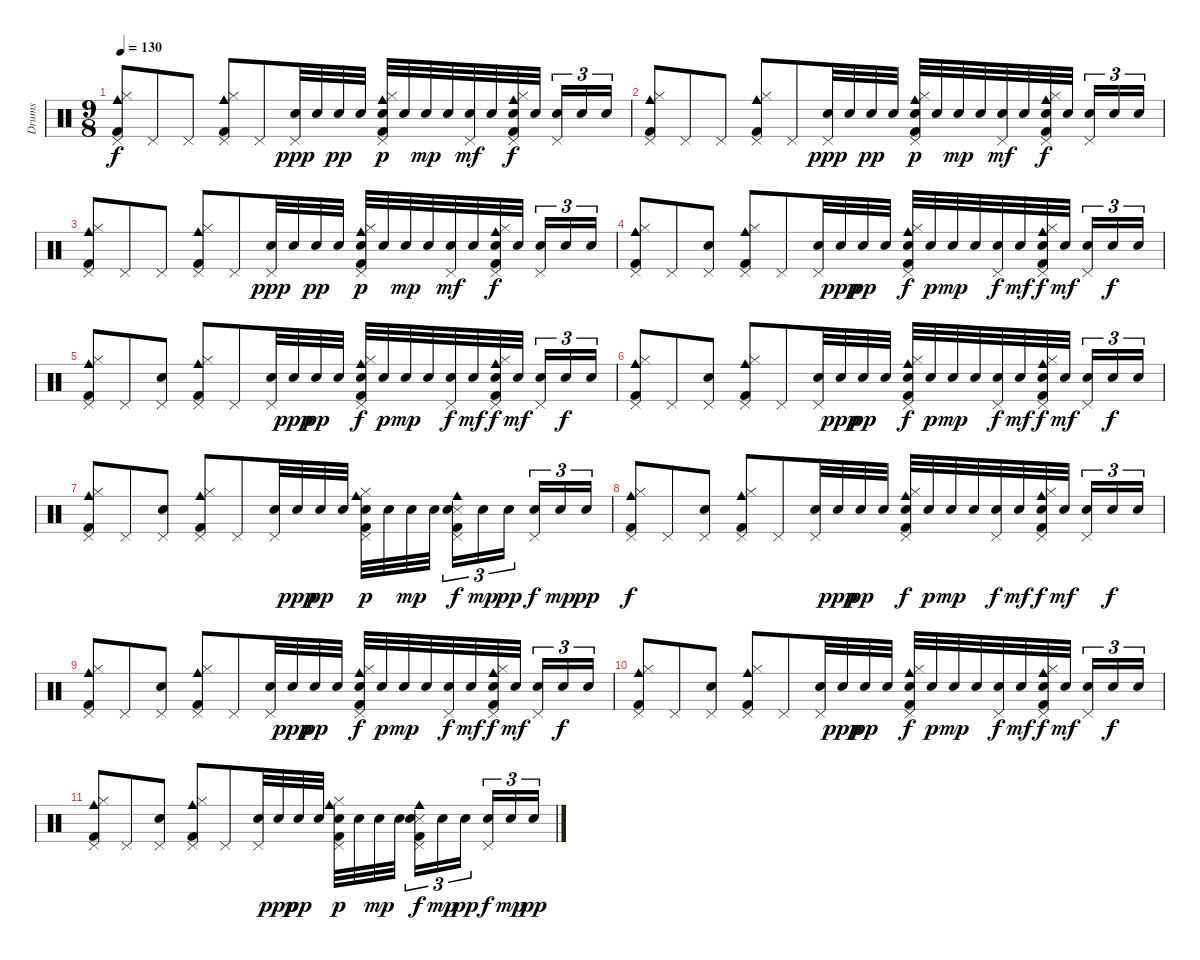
\track ("Drums" "Drums") {instrument percussion}
\staff {score}
\articulation defaults
\ts (9 8)
\tempo 130
\clef neutral
\ks c
("Cowbell medium (hit)" "Pedal Hi-Hat (hit)" "Hi-Hat (closed)" "Kick (hit) 2").8{dy f} "Pedal Hi-Hat (hit)".8 "Pedal Hi-Hat (hit)".8 ("Cowbell medium (hit)" "Pedal Hi-Hat (hit)" "Hi-Hat (closed)" "Kick (hit) 2").8 "Pedal Hi-Hat (hit)".8 ("Pedal Hi-Hat (hit)" "Snare (hit) 2").32{dy ppp} "Snare (hit) 2".32 "Snare (hit) 2".32{dy pp} "Snare (hit) 2".32 ("Hi-Hat (closed)" "Cowbell medium (hit)" "Pedal Hi-Hat (hit)" "Snare (hit) 2" "Kick (hit) 2").32{dy p} "Snare (hit) 2".32 "Snare (hit) 2".32{dy mp} "Snare (hit) 2".32 ("Pedal Hi-Hat (hit)" "Snare (hit) 2").32{dy mf} "Snare (hit) 2".32 ("Hi-Hat (closed)" "Cowbell medium (hit)" "Pedal Hi-Hat (hit)" "Snare (hit) 2" "Kick (hit) 2").32{dy f} "Snare (hit) 2".32{beam splitsecondary} ("Pedal Hi-Hat (hit)" "Snare (hit) 2").16{tu (3 2)} "Snare (hit) 2".16{tu (3 2)} "Snare (hit) 2".16{tu (3 2)} |
("Cowbell medium (hit)" "Pedal Hi-Hat (hit)" "Hi-Hat (closed)" "Kick (hit) 2").8 "Pedal Hi-Hat (hit)".8 "Pedal Hi-Hat (hit)".8 ("Cowbell medium (hit)" "Pedal Hi-Hat (hit)" "Hi-Hat (closed)" "Kick (hit) 2").8 "Pedal Hi-Hat (hit)".8 ("Pedal Hi-Hat (hit)" "Snare (hit) 2").32{dy ppp} "Snare (hit) 2".32 "Snare (hit) 2".32{dy pp} "Snare (hit) 2".32 ("Hi-Hat (closed)" "Cowbell medium (hit)" "Pedal Hi-Hat (hit)" "Snare (hit) 2" "Kick (hit) 2").32{dy p} "Snare (hit) 2".32 "Snare (hit) 2".32{dy mp} "Snare (hit) 2".32 ("Pedal Hi-Hat (hit)" "Snare (hit) 2").32{dy mf} "Snare (hit) 2".32 ("Hi-Hat (closed)" "Cowbell medium (hit)" "Pedal Hi-Hat (hit)" "Snare (hit) 2" "Kick (hit) 2").32{dy f} "Snare (hit) 2".32{beam splitsecondary} ("Pedal Hi-Hat (hit)" "Snare (hit) 2").16{tu (3 2)} "Snare (hit) 2".16{tu (3 2)} "Snare (hit) 2".16{tu (3 2)} |
("Cowbell medium (hit)" "Pedal Hi-Hat (hit)" "Hi-Hat (closed)" "Kick (hit) 2").8 "Pedal Hi-Hat (hit)".8 "Pedal Hi-Hat (hit)".8 ("Cowbell medium (hit)" "Pedal Hi-Hat (hit)" "Hi-Hat (closed)" "Kick (hit) 2").8 "Pedal Hi-Hat (hit)".8 ("Pedal Hi-Hat (hit)" "Snare (hit) 2").32{dy ppp} "Snare (hit) 2".32 "Snare (hit) 2".32{dy pp} "Snare (hit) 2".32 ("Hi-Hat (closed)" "Cowbell medium (hit)" "Pedal Hi-Hat (hit)" "Snare (hit) 2" "Kick (hit) 2").32{dy p} "Snare (hit) 2".32 "Snare (hit) 2".32{dy mp} "Snare (hit) 2".32 ("Pedal Hi-Hat (hit)" "Snare (hit) 2").32{dy mf} "Snare (hit) 2".32 ("Hi-Hat (closed)" "Cowbell medium (hit)" "Pedal Hi-Hat (hit)" "Snare (hit) 2" "Kick (hit) 2").32{dy f} "Snare (hit) 2".32{beam splitsecondary} ("Pedal Hi-Hat (hit)" "Snare (hit) 2").16{tu (3 2)} "Snare (hit) 2".16{tu (3 2)} "Snare (hit) 2".16{tu (3 2)} |
("Cowbell medium (hit)" "Pedal Hi-Hat (hit)" "Hi-Hat (closed)" "Kick (hit) 2").8 "Pedal Hi-Hat (hit)".8 ("Pedal Hi-Hat (hit)" "Snare (hit) 2").8 ("Cowbell medium (hit)" "Pedal Hi-Hat (hit)" "Hi-Hat (closed)" "Kick (hit) 2").8 "Pedal Hi-Hat (hit)".8 ("Pedal Hi-Hat (hit)" "Snare (hit) 2").32 "Snare (hit) 2".32{dy ppp} "Snare (hit) 2".32{dy pp} "Snare (hit) 2".32 ("Hi-Hat (closed)" "Cowbell medium (hit)" "Pedal Hi-Hat (hit)" "Snare (hit) 2" "Kick (hit) 2").32{dy f} "Snare (hit) 2".32{dy p} "Snare (hit) 2".32{dy mp} "Snare (hit) 2".32 ("Pedal Hi-Hat (hit)" "Snare (hit) 2").32{dy f} "Snare (hit) 2".32{dy mf} ("Hi-Hat (closed)" "Cowbell medium (hit)" "Pedal Hi-Hat (hit)" "Snare (hit) 2" "Kick (hit) 2").32{dy f} "Snare (hit) 2".32{dy mf beam splitsecondary} ("Pedal Hi-Hat (hit)" "Snare (hit) 2").16{tu (3 2)} "Snare (hit) 2".16{tu (3 2) dy f} "Snare (hit) 2".16{tu (3 2)} |
("Cowbell medium (hit)" "Pedal Hi-Hat (hit)" "Hi-Hat (closed)" "Kick (hit) 2").8 "Pedal Hi-Hat (hit)".8 ("Pedal Hi-Hat (hit)" "Snare (hit) 2").8 ("Cowbell medium (hit)" "Pedal Hi-Hat (hit)" "Hi-Hat (closed)" "Kick (hit) 2").8 "Pedal Hi-Hat (hit)".8 ("Pedal Hi-Hat (hit)" "Snare (hit) 2").32 "Snare (hit) 2".32{dy ppp} "Snare (hit) 2".32{dy pp} "Snare (hit) 2".32 ("Hi-Hat (closed)" "Cowbell medium (hit)" "Pedal Hi-Hat (hit)" "Snare (hit) 2" "Kick (hit) 2").32{dy f} "Snare (hit) 2".32{dy p} "Snare (hit) 2".32{dy mp} "Snare (hit) 2".32 ("Pedal Hi-Hat (hit)" "Snare (hit) 2").32{dy f} "Snare (hit) 2".32{dy mf} ("Hi-Hat (closed)" "Cowbell medium (hit)" "Pedal Hi-Hat (hit)" "Snare (hit) 2" "Kick (hit) 2").32{dy f} "Snare (hit) 2".32{dy mf beam splitsecondary} ("Pedal Hi-Hat (hit)" "Snare (hit) 2").16{tu (3 2)} "Snare (hit) 2".16{tu (3 2) dy f} "Snare (hit) 2".16{tu (3 2)} |
("Cowbell medium (hit)" "Pedal Hi-Hat (hit)" "Hi-Hat (closed)" "Kick (hit) 2").8 "Pedal Hi-Hat (hit)".8 ("Pedal Hi-Hat (hit)" "Snare (hit) 2").8 ("Cowbell medium (hit)" "Pedal Hi-Hat (hit)" "Hi-Hat (closed)" "Kick (hit) 2").8 "Pedal Hi-Hat (hit)".8 ("Pedal Hi-Hat (hit)" "Snare (hit) 2").32 "Snare (hit) 2".32{dy ppp} "Snare (hit) 2".32{dy pp} "Snare (hit) 2".32 ("Hi-Hat (closed)" "Cowbell medium (hit)" "Pedal Hi-Hat (hit)" "Snare (hit) 2" "Kick (hit) 2").32{dy f} "Snare (hit) 2".32{dy p} "Snare (hit) 2".32{dy mp} "Snare (hit) 2".32 ("Pedal Hi-Hat (hit)" "Snare (hit) 2").32{dy f} "Snare (hit) 2".32{dy mf} ("Hi-Hat (closed)" "Cowbell medium (hit)" "Pedal Hi-Hat (hit)" "Snare (hit) 2" "Kick (hit) 2").32{dy f} "Snare (hit) 2".32{dy mf beam splitsecondary} ("Pedal Hi-Hat (hit)" "Snare (hit) 2").16{tu (3 2)} "Snare (hit) 2".16{tu (3 2) dy f} "Snare (hit) 2".16{tu (3 2)} |
("Cowbell medium (hit)" "Pedal Hi-Hat (hit)" "Hi-Hat (closed)" "Kick (hit) 2").8 "Pedal Hi-Hat (hit)".8 ("Pedal Hi-Hat (hit)" "Snare (hit) 2").8 ("Cowbell medium (hit)" "Pedal Hi-Hat (hit)" "Hi-Hat (closed)" "Kick (hit) 2").8 "Pedal Hi-Hat (hit)".8 ("Pedal Hi-Hat (hit)" "Snare (hit) 2").32 "Snare (hit) 2".32{dy ppp} "Snare (hit) 2".32{dy pp} "Snare (hit) 2".32 ("Hi-Hat (closed)" "Cowbell medium (hit)" "Pedal Hi-Hat (hit)" "Snare (hit) 2" "Kick (hit) 2").32{dy p} "Snare (hit) 2".32 "Snare (hit) 2".32{dy mp} "Snare (hit) 2".32{beam splitsecondary} ("Snare (side stick) 3" "Cowbell medium (hit)" "Pedal Hi-Hat (hit)" "Snare (hit) 2" "Kick (hit) 2").16{tu (3 2) dy f} "Snare (hit) 2".16{tu (3 2) dy mp} "Snare (hit) 2".16{tu (3 2) dy pp beam splitsecondary} ("Pedal Hi-Hat (hit)" "Snare (hit) 2").16{tu (3 2) dy f} "Snare (hit) 2".16{tu (3 2) dy mp} "Snare (hit) 2".16{tu (3 2) dy pp} |
("Cowbell medium (hit)" "Pedal Hi-Hat (hit)" "Hi-Hat (closed)" "Kick (hit) 2").8{dy f} "Pedal Hi-Hat (hit)".8 ("Pedal Hi-Hat (hit)" "Snare (hit) 2").8 ("Cowbell medium (hit)" "Pedal Hi-Hat (hit)" "Hi-Hat (closed)" "Kick (hit) 2").8 "Pedal Hi-Hat (hit)".8 ("Pedal Hi-Hat (hit)" "Snare (hit) 2").32 "Snare (hit) 2".32{dy ppp} "Snare (hit) 2".32{dy pp} "Snare (hit) 2".32 ("Hi-Hat (closed)" "Cowbell medium (hit)" "Pedal Hi-Hat (hit)" "Snare (hit) 2" "Kick (hit) 2").32{dy f} "Snare (hit) 2".32{dy p} "Snare (hit) 2".32{dy mp} "Snare (hit) 2".32 ("Pedal Hi-Hat (hit)" "Snare (hit) 2").32{dy f} "Snare (hit) 2".32{dy mf} ("Hi-Hat (closed)" "Cowbell medium (hit)" "Pedal Hi-Hat (hit)" "Snare (hit) 2" "Kick (hit) 2").32{dy f} "Snare (hit) 2".32{dy mf beam splitsecondary} ("Pedal Hi-Hat (hit)" "Snare (hit) 2").16{tu (3 2)} "Snare (hit) 2".16{tu (3 2) dy f} "Snare (hit) 2".16{tu (3 2)} |
("Cowbell medium (hit)" "Pedal Hi-Hat (hit)" "Hi-Hat (closed)" "Kick (hit) 2").8 "Pedal Hi-Hat (hit)".8 ("Pedal Hi-Hat (hit)" "Snare (hit) 2").8 ("Cowbell medium (hit)" "Pedal Hi-Hat (hit)" "Hi-Hat (closed)" "Kick (hit) 2").8 "Pedal Hi-Hat (hit)".8 ("Pedal Hi-Hat (hit)" "Snare (hit) 2").32 "Snare (hit) 2".32{dy ppp} "Snare (hit) 2".32{dy pp} "Snare (hit) 2".32 ("Hi-Hat (closed)" "Cowbell medium (hit)" "Pedal Hi-Hat (hit)" "Snare (hit) 2" "Kick (hit) 2").32{dy f} "Snare (hit) 2".32{dy p} "Snare (hit) 2".32{dy mp} "Snare (hit) 2".32 ("Pedal Hi-Hat (hit)" "Snare (hit) 2").32{dy f} "Snare (hit) 2".32{dy mf} ("Hi-Hat (closed)" "Cowbell medium (hit)" "Pedal Hi-Hat (hit)" "Snare (hit) 2" "Kick (hit) 2").32{dy f} "Snare (hit) 2".32{dy mf beam splitsecondary} ("Pedal Hi-Hat (hit)" "Snare (hit) 2").16{tu (3 2)} "Snare (hit) 2".16{tu (3 2) dy f} "Snare (hit) 2".16{tu (3 2)} |
("Cowbell medium (hit)" "Pedal Hi-Hat (hit)" "Hi-Hat (closed)" "Kick (hit) 2").8 "Pedal Hi-Hat (hit)".8 ("Pedal Hi-Hat (hit)" "Snare (hit) 2").8 ("Cowbell medium (hit)" "Pedal Hi-Hat (hit)" "Hi-Hat (closed)" "Kick (hit) 2").8 "Pedal Hi-Hat (hit)".8 ("Pedal Hi-Hat (hit)" "Snare (hit) 2").32 "Snare (hit) 2".32{dy ppp} "Snare (hit) 2".32{dy pp} "Snare (hit) 2".32 ("Hi-Hat (closed)" "Cowbell medium (hit)" "Pedal Hi-Hat (hit)" "Snare (hit) 2" "Kick (hit) 2").32{dy f} "Snare (hit) 2".32{dy p} "Snare (hit) 2".32{dy mp} "Snare (hit) 2".32 ("Pedal Hi-Hat (hit)" "Snare (hit) 2").32{dy f} "Snare (hit) 2".32{dy mf} ("Hi-Hat (closed)" "Cowbell medium (hit)" "Pedal Hi-Hat (hit)" "Snare (hit) 2" "Kick (hit) 2").32{dy f} "Snare (hit) 2".32{dy mf beam splitsecondary} ("Pedal Hi-Hat (hit)" "Snare (hit) 2").16{tu (3 2)} "Snare (hit) 2".16{tu (3 2) dy f} "Snare (hit) 2".16{tu (3 2)} |
("Cowbell medium (hit)" "Pedal Hi-Hat (hit)" "Hi-Hat (closed)" "Kick (hit) 2").8 "Pedal Hi-Hat (hit)".8 ("Pedal Hi-Hat (hit)" "Snare (hit) 2").8 ("Cowbell medium (hit)" "Pedal Hi-Hat (hit)" "Hi-Hat (closed)" "Kick (hit) 2").8 "Pedal Hi-Hat (hit)".8 ("Pedal Hi-Hat (hit)" "Snare (hit) 2").32 "Snare (hit) 2".32{dy ppp} "Snare (hit) 2".32{dy pp} "Snare (hit) 2".32 ("Hi-Hat (closed)" "Cowbell medium (hit)" "Pedal Hi-Hat (hit)" "Snare (hit) 2" "Kick (hit) 2").32{dy p} "Snare (hit) 2".32 "Snare (hit) 2".32{dy mp} "Snare (hit) 2".32{beam splitsecondary} ("Snare (side stick) 3" "Cowbell medium (hit)" "Pedal Hi-Hat (hit)" "Snare (hit) 2" "Kick (hit) 2").16{tu (3 2) dy f} "Snare (hit) 2".16{tu (3 2) dy mp} "Snare (hit) 2".16{tu (3 2) dy pp beam splitsecondary} ("Pedal Hi-Hat (hit)" "Snare (hit) 2").16{tu (3 2) dy f} "Snare (hit) 2".16{tu (3 2) dy mp} "Snare (hit) 2".16{tu (3 2) dy pp}
